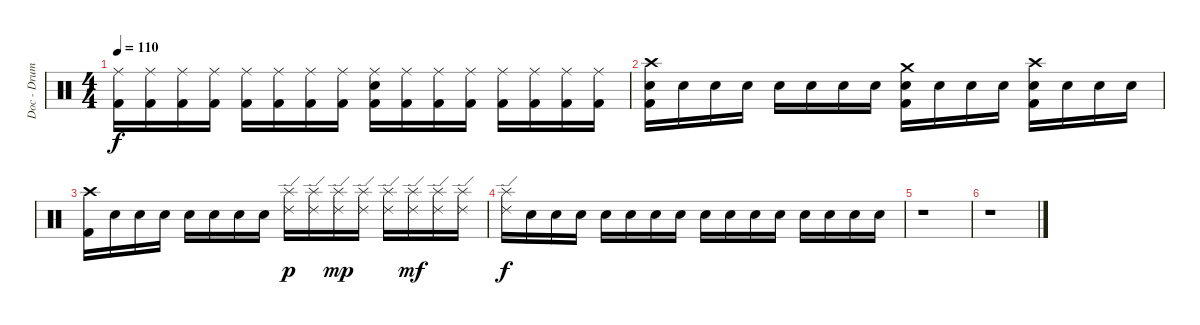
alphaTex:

\track ("Doc - Drums" "Doc - Drum") {instrument percussion}
\staff {score}
\articulation defaults
\ts (4 4)
\tempo 110
\clef neutral
\ks c
("Ride (middle)" "Kick (hit) 2").16{dy f} ("Ride (middle)" "Kick (hit) 2").16 ("Ride (middle)" "Kick (hit) 2").16 ("Ride (middle)" "Kick (hit) 2").16 ("Ride (middle)" "Kick (hit) 2").16 ("Ride (middle)" "Kick (hit) 2").16 ("Ride (middle)" "Kick (hit) 2").16 ("Ride (middle)" "Kick (hit) 2").16 ("Ride (middle)" "Electric Snare (hit)" "Kick (hit) 2").16 ("Ride (middle)" "Kick (hit) 2").16 ("Ride (middle)" "Kick (hit) 2").16 ("Ride (middle)" "Kick (hit) 2").16 ("Ride (middle)" "Kick (hit) 2").16 ("Ride (middle)" "Kick (hit) 2").16 ("Ride (middle)" "Kick (hit) 2").16 ("Ride (middle)" "Kick (hit) 2").16 |
("Crash high (hit)" "Electric Snare (hit)" "Kick (hit) 2").16 "Snare (hit)".16 "Snare (hit)".16 "Snare (hit)".16 "Snare (hit)".16 "Snare (hit)".16 "Snare (hit)".16 "Snare (hit)".16 ("Crash medium (hit)" "Electric Snare (hit)" "Kick (hit) 2").16 "Snare (hit)".16 "Snare (hit)".16 "Snare (hit)".16 ("Crash high (hit)" "Electric Snare (hit)" "Kick (hit) 2").16 "Snare (hit)".16 "Snare (hit)".16 "Snare (hit)".16 |
("Crash high (hit)" "Kick (hit) 2").16 "Snare (hit)".16 "Snare (hit)".16 "Snare (hit)".16 "Snare (hit)".16 "Snare (hit)".16 "Snare (hit)".16 "Snare (hit)".16 ("Ride (edge) 2" "Splash (hit)").16{dy p} ("Ride (edge) 2" "Splash (hit)").16 ("Ride (edge) 2" "Splash (hit)").16{dy mp} ("Ride (edge) 2" "Splash (hit)").16 ("Ride (edge) 2" "Splash (hit)").16 ("Ride (edge) 2" "Splash (hit)").16{dy mf} ("Ride (edge) 2" "Splash (hit)").16 ("Ride (edge) 2" "Splash (hit)").16 |
("Ride (edge) 2" "Splash (hit)").16{dy f} "Snare (hit)".16 "Snare (hit)".16 "Snare (hit)".16 "Snare (hit)".16 "Snare (hit)".16 "Snare (hit)".16 "Snare (hit)".16 "Snare (hit)".16 "Snare (hit)".16 "Snare (hit)".16 "Snare (hit)".16 "Snare (hit)".16 "Snare (hit)".16 "Snare (hit)".16 "Snare (hit)".16 |
r.1 |
r.1
